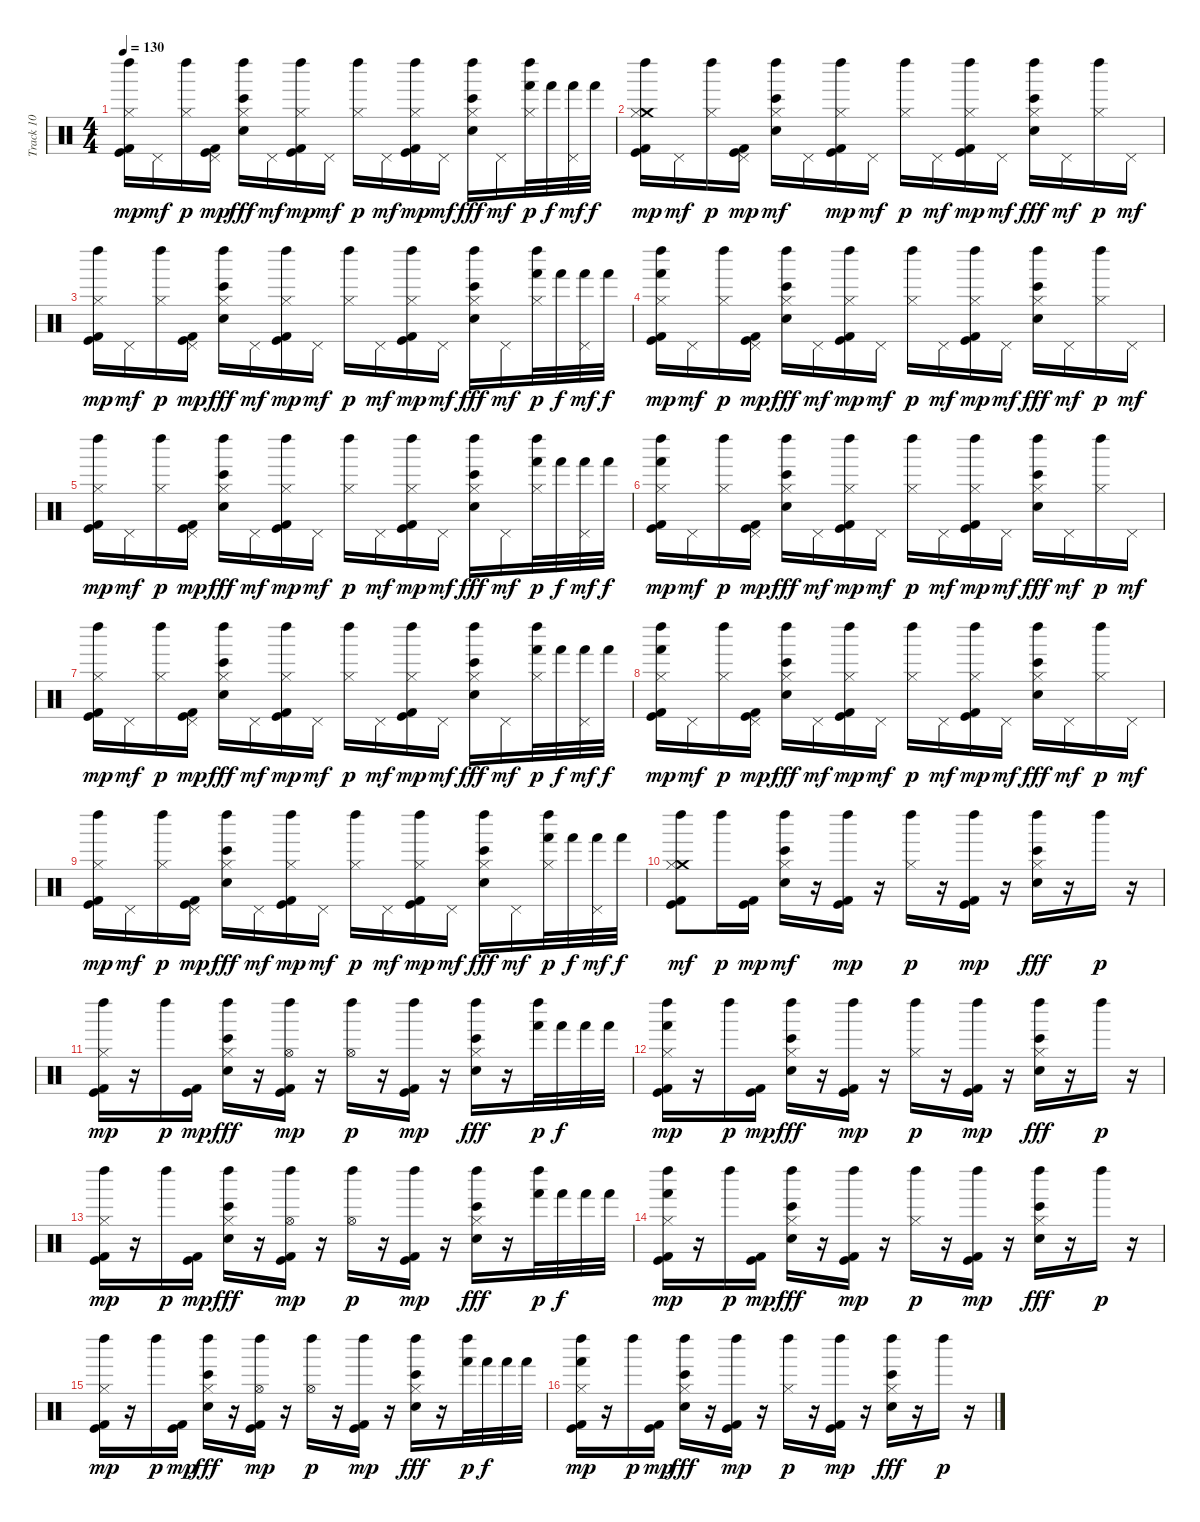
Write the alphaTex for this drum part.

\track ("Track 10" "Track 10") {instrument percussion}
\staff {score}
\articulation defaults
\ts (4 4)
\tempo 130
\clef neutral
\ks c
("Hi-Hat (closed)" "Left Maraca (hit)" "Kick (hit) 2" "Kick (hit)").16{dy mp} "Pedal Hi-Hat (hit)".16{dy mf} ("Hi-Hat (closed)" "Left Maraca (hit)").16{dy p} ("Pedal Hi-Hat (hit)" "Kick (hit) 2" "Kick (hit)").16{dy mp} ("Hi-Hat (closed)" "Left Maraca (hit)" "Hand Clap (hit)" "Bongo High (hit)").16{dy fff} "Pedal Hi-Hat (hit)".16{dy mf} ("Hi-Hat (closed)" "Left Maraca (hit)" "Kick (hit) 2" "Kick (hit)").16{dy mp} "Pedal Hi-Hat (hit)".16{dy mf} ("Hi-Hat (closed)" "Left Maraca (hit)").16{dy p} "Pedal Hi-Hat (hit)".16{dy mf} ("Hi-Hat (closed)" "Left Maraca (hit)" "Kick (hit) 2" "Kick (hit)").16{dy mp} "Pedal Hi-Hat (hit)".16{dy mf} ("Hi-Hat (closed)" "Left Maraca (hit)" "Hand Clap (hit)" "Bongo High (hit)").16{dy fff} "Pedal Hi-Hat (hit)".16{dy mf} ("Hi-Hat (closed)" "Hand (hit)" "Left Maraca (hit)").32{dy p} "Hand (hit)".32{dy f} ("Pedal Hi-Hat (hit)" "Hand (hit)").32{dy mf} "Hand (hit)".32{dy f} |
("Crash medium (hit)" "Hi-Hat (closed)" "Left Maraca (hit)" "Kick (hit) 2" "Kick (hit)").16{dy mp} "Pedal Hi-Hat (hit)".16{dy mf} ("Hi-Hat (closed)" "Left Maraca (hit)").16{dy p} ("Pedal Hi-Hat (hit)" "Kick (hit) 2" "Kick (hit)").16{dy mp} ("Left Maraca (hit)" "Hand Clap (hit)" "Bongo High (hit)" "Hi-Hat (closed)").16{dy mf} "Pedal Hi-Hat (hit)".16 ("Hi-Hat (closed)" "Left Maraca (hit)" "Kick (hit) 2" "Kick (hit)").16{dy mp} "Pedal Hi-Hat (hit)".16{dy mf} ("Hi-Hat (closed)" "Left Maraca (hit)").16{dy p} "Pedal Hi-Hat (hit)".16{dy mf} ("Hi-Hat (closed)" "Left Maraca (hit)" "Kick (hit) 2" "Kick (hit)").16{dy mp} "Pedal Hi-Hat (hit)".16{dy mf} ("Hi-Hat (closed)" "Left Maraca (hit)" "Hand Clap (hit)" "Bongo High (hit)").16{dy fff} "Pedal Hi-Hat (hit)".16{dy mf} ("Hi-Hat (closed)" "Left Maraca (hit)").16{dy p} "Pedal Hi-Hat (hit)".16{dy mf} |
("Hi-Hat (closed)" "Left Maraca (hit)" "Kick (hit) 2" "Kick (hit)").16{dy mp} "Pedal Hi-Hat (hit)".16{dy mf} ("Hi-Hat (closed)" "Left Maraca (hit)").16{dy p} ("Pedal Hi-Hat (hit)" "Kick (hit) 2" "Kick (hit)").16{dy mp} ("Hi-Hat (closed)" "Left Maraca (hit)" "Hand Clap (hit)" "Bongo High (hit)").16{dy fff} "Pedal Hi-Hat (hit)".16{dy mf} ("Hi-Hat (closed)" "Left Maraca (hit)" "Kick (hit) 2" "Kick (hit)").16{dy mp} "Pedal Hi-Hat (hit)".16{dy mf} ("Hi-Hat (closed)" "Left Maraca (hit)").16{dy p} "Pedal Hi-Hat (hit)".16{dy mf} ("Hi-Hat (closed)" "Left Maraca (hit)" "Kick (hit) 2" "Kick (hit)").16{dy mp} "Pedal Hi-Hat (hit)".16{dy mf} ("Hi-Hat (closed)" "Left Maraca (hit)" "Hand Clap (hit)" "Bongo High (hit)").16{dy fff} "Pedal Hi-Hat (hit)".16{dy mf} ("Hi-Hat (closed)" "Hand (hit)" "Left Maraca (hit)").32{dy p} "Hand (hit)".32{dy f} ("Pedal Hi-Hat (hit)" "Hand (hit)").32{dy mf} "Hand (hit)".32{dy f} |
("Hand (hit)" "Hi-Hat (closed)" "Left Maraca (hit)" "Kick (hit) 2" "Kick (hit)").16{dy mp} "Pedal Hi-Hat (hit)".16{dy mf} ("Hi-Hat (closed)" "Left Maraca (hit)").16{dy p} ("Pedal Hi-Hat (hit)" "Kick (hit) 2" "Kick (hit)").16{dy mp} ("Hi-Hat (closed)" "Left Maraca (hit)" "Hand Clap (hit)" "Bongo High (hit)").16{dy fff} "Pedal Hi-Hat (hit)".16{dy mf} ("Hi-Hat (closed)" "Left Maraca (hit)" "Kick (hit) 2" "Kick (hit)").16{dy mp} "Pedal Hi-Hat (hit)".16{dy mf} ("Hi-Hat (closed)" "Left Maraca (hit)").16{dy p} "Pedal Hi-Hat (hit)".16{dy mf} ("Hi-Hat (closed)" "Left Maraca (hit)" "Kick (hit) 2" "Kick (hit)").16{dy mp} "Pedal Hi-Hat (hit)".16{dy mf} ("Hi-Hat (closed)" "Left Maraca (hit)" "Hand Clap (hit)" "Bongo High (hit)").16{dy fff} "Pedal Hi-Hat (hit)".16{dy mf} ("Hi-Hat (closed)" "Left Maraca (hit)").16{dy p} "Pedal Hi-Hat (hit)".16{dy mf} |
("Hi-Hat (closed)" "Left Maraca (hit)" "Kick (hit) 2" "Kick (hit)").16{dy mp} "Pedal Hi-Hat (hit)".16{dy mf} ("Hi-Hat (closed)" "Left Maraca (hit)").16{dy p} ("Pedal Hi-Hat (hit)" "Kick (hit) 2" "Kick (hit)").16{dy mp} ("Hi-Hat (closed)" "Left Maraca (hit)" "Hand Clap (hit)" "Bongo High (hit)").16{dy fff} "Pedal Hi-Hat (hit)".16{dy mf} ("Hi-Hat (closed)" "Left Maraca (hit)" "Kick (hit) 2" "Kick (hit)").16{dy mp} "Pedal Hi-Hat (hit)".16{dy mf} ("Hi-Hat (closed)" "Left Maraca (hit)").16{dy p} "Pedal Hi-Hat (hit)".16{dy mf} ("Hi-Hat (closed)" "Left Maraca (hit)" "Kick (hit) 2" "Kick (hit)").16{dy mp} "Pedal Hi-Hat (hit)".16{dy mf} ("Hi-Hat (closed)" "Left Maraca (hit)" "Hand Clap (hit)" "Bongo High (hit)").16{dy fff} "Pedal Hi-Hat (hit)".16{dy mf} ("Hi-Hat (closed)" "Hand (hit)" "Left Maraca (hit)").32{dy p} "Hand (hit)".32{dy f} ("Pedal Hi-Hat (hit)" "Hand (hit)").32{dy mf} "Hand (hit)".32{dy f} |
("Hand (hit)" "Hi-Hat (closed)" "Left Maraca (hit)" "Kick (hit) 2" "Kick (hit)").16{dy mp} "Pedal Hi-Hat (hit)".16{dy mf} ("Hi-Hat (closed)" "Left Maraca (hit)").16{dy p} ("Pedal Hi-Hat (hit)" "Kick (hit) 2" "Kick (hit)").16{dy mp} ("Hi-Hat (closed)" "Left Maraca (hit)" "Hand Clap (hit)" "Bongo High (hit)").16{dy fff} "Pedal Hi-Hat (hit)".16{dy mf} ("Hi-Hat (closed)" "Left Maraca (hit)" "Kick (hit) 2" "Kick (hit)").16{dy mp} "Pedal Hi-Hat (hit)".16{dy mf} ("Hi-Hat (closed)" "Left Maraca (hit)").16{dy p} "Pedal Hi-Hat (hit)".16{dy mf} ("Hi-Hat (closed)" "Left Maraca (hit)" "Kick (hit) 2" "Kick (hit)").16{dy mp} "Pedal Hi-Hat (hit)".16{dy mf} ("Hi-Hat (closed)" "Left Maraca (hit)" "Hand Clap (hit)" "Bongo High (hit)").16{dy fff} "Pedal Hi-Hat (hit)".16{dy mf} ("Hi-Hat (closed)" "Left Maraca (hit)").16{dy p} "Pedal Hi-Hat (hit)".16{dy mf} |
("Hi-Hat (closed)" "Left Maraca (hit)" "Kick (hit) 2" "Kick (hit)").16{dy mp} "Pedal Hi-Hat (hit)".16{dy mf} ("Hi-Hat (closed)" "Left Maraca (hit)").16{dy p} ("Pedal Hi-Hat (hit)" "Kick (hit) 2" "Kick (hit)").16{dy mp} ("Hi-Hat (closed)" "Left Maraca (hit)" "Hand Clap (hit)" "Bongo High (hit)").16{dy fff} "Pedal Hi-Hat (hit)".16{dy mf} ("Hi-Hat (closed)" "Left Maraca (hit)" "Kick (hit) 2" "Kick (hit)").16{dy mp} "Pedal Hi-Hat (hit)".16{dy mf} ("Hi-Hat (closed)" "Left Maraca (hit)").16{dy p} "Pedal Hi-Hat (hit)".16{dy mf} ("Hi-Hat (closed)" "Left Maraca (hit)" "Kick (hit) 2" "Kick (hit)").16{dy mp} "Pedal Hi-Hat (hit)".16{dy mf} ("Hi-Hat (closed)" "Left Maraca (hit)" "Hand Clap (hit)" "Bongo High (hit)").16{dy fff} "Pedal Hi-Hat (hit)".16{dy mf} ("Hi-Hat (closed)" "Hand (hit)" "Left Maraca (hit)").32{dy p} "Hand (hit)".32{dy f} ("Pedal Hi-Hat (hit)" "Hand (hit)").32{dy mf} "Hand (hit)".32{dy f} |
("Hand (hit)" "Hi-Hat (closed)" "Left Maraca (hit)" "Kick (hit) 2" "Kick (hit)").16{dy mp} "Pedal Hi-Hat (hit)".16{dy mf} ("Hi-Hat (closed)" "Left Maraca (hit)").16{dy p} ("Pedal Hi-Hat (hit)" "Kick (hit) 2" "Kick (hit)").16{dy mp} ("Hi-Hat (closed)" "Left Maraca (hit)" "Hand Clap (hit)" "Bongo High (hit)").16{dy fff} "Pedal Hi-Hat (hit)".16{dy mf} ("Hi-Hat (closed)" "Left Maraca (hit)" "Kick (hit) 2" "Kick (hit)").16{dy mp} "Pedal Hi-Hat (hit)".16{dy mf} ("Hi-Hat (closed)" "Left Maraca (hit)").16{dy p} "Pedal Hi-Hat (hit)".16{dy mf} ("Hi-Hat (closed)" "Left Maraca (hit)" "Kick (hit) 2" "Kick (hit)").16{dy mp} "Pedal Hi-Hat (hit)".16{dy mf} ("Hi-Hat (closed)" "Left Maraca (hit)" "Hand Clap (hit)" "Bongo High (hit)").16{dy fff} "Pedal Hi-Hat (hit)".16{dy mf} ("Hi-Hat (closed)" "Left Maraca (hit)").16{dy p} "Pedal Hi-Hat (hit)".16{dy mf} |
("Hi-Hat (closed)" "Left Maraca (hit)" "Kick (hit) 2" "Kick (hit)").16{dy mp} "Pedal Hi-Hat (hit)".16{dy mf} ("Hi-Hat (closed)" "Left Maraca (hit)").16{dy p} ("Pedal Hi-Hat (hit)" "Kick (hit) 2" "Kick (hit)").16{dy mp} ("Hi-Hat (closed)" "Left Maraca (hit)" "Hand Clap (hit)" "Bongo High (hit)").16{dy fff} "Pedal Hi-Hat (hit)".16{dy mf} ("Hi-Hat (closed)" "Left Maraca (hit)" "Kick (hit) 2" "Kick (hit)").16{dy mp} "Pedal Hi-Hat (hit)".16{dy mf} ("Hi-Hat (closed)" "Left Maraca (hit)").16{dy p} "Pedal Hi-Hat (hit)".16{dy mf} ("Hi-Hat (closed)" "Left Maraca (hit)" "Kick (hit) 2" "Kick (hit)").16{dy mp} "Pedal Hi-Hat (hit)".16{dy mf} ("Hi-Hat (closed)" "Left Maraca (hit)" "Hand Clap (hit)" "Bongo High (hit)").16{dy fff} "Pedal Hi-Hat (hit)".16{dy mf} ("Hi-Hat (closed)" "Hand (hit)" "Left Maraca (hit)").32{dy p} "Hand (hit)".32{dy f} ("Pedal Hi-Hat (hit)" "Hand (hit)").32{dy mf} "Hand (hit)".32{dy f} |
("Crash medium (hit)" "Left Maraca (hit)" "Kick (hit)" "Kick (hit) 2" "Hi-Hat (closed)").8{dy mf} "Left Maraca (hit)".16{dy p} ("Kick (hit) 2" "Kick (hit)").16{dy mp} ("Left Maraca (hit)" "Hand Clap (hit)" "Bongo High (hit)" "Hi-Hat (closed)").16{dy mf} r.16 ("Left Maraca (hit)" "Kick (hit) 2" "Kick (hit)").16{dy mp} r.16 ("Hi-Hat (closed)" "Left Maraca (hit)").16{dy p} r.16 ("Left Maraca (hit)" "Kick (hit) 2" "Kick (hit)").16{dy mp} r.16 ("Hi-Hat (closed)" "Left Maraca (hit)" "Hand Clap (hit)" "Bongo High (hit)").16{dy fff} r.16 "Left Maraca (hit)".16{dy p} r.16 |
("Hi-Hat (closed)" "Left Maraca (hit)" "Kick (hit) 2" "Kick (hit)").16{dy mp} r.16 "Left Maraca (hit)".16{dy p} ("Kick (hit) 2" "Kick (hit)").16{dy mp} ("Hi-Hat (closed)" "Left Maraca (hit)" "Hand Clap (hit)" "Bongo High (hit)").16{dy fff} r.16 ("Hi-Hat (open)" "Left Maraca (hit)" "Kick (hit) 2" "Kick (hit)").16{dy mp} r.16 ("Hi-Hat (open)" "Left Maraca (hit)").16{dy p} r.16 ("Left Maraca (hit)" "Kick (hit) 2" "Kick (hit)").16{dy mp} r.16 ("Hi-Hat (closed)" "Left Maraca (hit)" "Hand Clap (hit)" "Bongo High (hit)").16{dy fff} r.16 ("Hand (hit)" "Left Maraca (hit)").32{dy p} "Hand (hit)".32{dy f} "Hand (hit)".32 "Hand (hit)".32 |
("Hand (hit)" "Hi-Hat (closed)" "Left Maraca (hit)" "Kick (hit) 2" "Kick (hit)").16{dy mp} r.16 "Left Maraca (hit)".16{dy p} ("Kick (hit) 2" "Kick (hit)").16{dy mp} ("Hi-Hat (closed)" "Left Maraca (hit)" "Hand Clap (hit)" "Bongo High (hit)").16{dy fff} r.16 ("Left Maraca (hit)" "Kick (hit) 2" "Kick (hit)").16{dy mp} r.16 ("Hi-Hat (closed)" "Left Maraca (hit)").16{dy p} r.16 ("Left Maraca (hit)" "Kick (hit) 2" "Kick (hit)").16{dy mp} r.16 ("Hi-Hat (closed)" "Left Maraca (hit)" "Hand Clap (hit)" "Bongo High (hit)").16{dy fff} r.16 "Left Maraca (hit)".16{dy p} r.16 |
("Hi-Hat (closed)" "Left Maraca (hit)" "Kick (hit) 2" "Kick (hit)").16{dy mp} r.16 "Left Maraca (hit)".16{dy p} ("Kick (hit) 2" "Kick (hit)").16{dy mp} ("Hi-Hat (closed)" "Left Maraca (hit)" "Hand Clap (hit)" "Bongo High (hit)").16{dy fff} r.16 ("Hi-Hat (open)" "Left Maraca (hit)" "Kick (hit) 2" "Kick (hit)").16{dy mp} r.16 ("Hi-Hat (open)" "Left Maraca (hit)").16{dy p} r.16 ("Left Maraca (hit)" "Kick (hit) 2" "Kick (hit)").16{dy mp} r.16 ("Hi-Hat (closed)" "Left Maraca (hit)" "Hand Clap (hit)" "Bongo High (hit)").16{dy fff} r.16 ("Hand (hit)" "Left Maraca (hit)").32{dy p} "Hand (hit)".32{dy f} "Hand (hit)".32 "Hand (hit)".32 |
("Hand (hit)" "Hi-Hat (closed)" "Left Maraca (hit)" "Kick (hit) 2" "Kick (hit)").16{dy mp} r.16 "Left Maraca (hit)".16{dy p} ("Kick (hit) 2" "Kick (hit)").16{dy mp} ("Hi-Hat (closed)" "Left Maraca (hit)" "Hand Clap (hit)" "Bongo High (hit)").16{dy fff} r.16 ("Left Maraca (hit)" "Kick (hit) 2" "Kick (hit)").16{dy mp} r.16 ("Hi-Hat (closed)" "Left Maraca (hit)").16{dy p} r.16 ("Left Maraca (hit)" "Kick (hit) 2" "Kick (hit)").16{dy mp} r.16 ("Hi-Hat (closed)" "Left Maraca (hit)" "Hand Clap (hit)" "Bongo High (hit)").16{dy fff} r.16 "Left Maraca (hit)".16{dy p} r.16 |
("Hi-Hat (closed)" "Left Maraca (hit)" "Kick (hit) 2" "Kick (hit)").16{dy mp} r.16 "Left Maraca (hit)".16{dy p} ("Kick (hit) 2" "Kick (hit)").16{dy mp} ("Hi-Hat (closed)" "Left Maraca (hit)" "Hand Clap (hit)" "Bongo High (hit)").16{dy fff} r.16 ("Hi-Hat (open)" "Left Maraca (hit)" "Kick (hit) 2" "Kick (hit)").16{dy mp} r.16 ("Hi-Hat (open)" "Left Maraca (hit)").16{dy p} r.16 ("Left Maraca (hit)" "Kick (hit) 2" "Kick (hit)").16{dy mp} r.16 ("Hi-Hat (closed)" "Left Maraca (hit)" "Hand Clap (hit)" "Bongo High (hit)").16{dy fff} r.16 ("Hand (hit)" "Left Maraca (hit)").32{dy p} "Hand (hit)".32{dy f} "Hand (hit)".32 "Hand (hit)".32 |
("Hand (hit)" "Hi-Hat (closed)" "Left Maraca (hit)" "Kick (hit) 2" "Kick (hit)").16{dy mp} r.16 "Left Maraca (hit)".16{dy p} ("Kick (hit) 2" "Kick (hit)").16{dy mp} ("Hi-Hat (closed)" "Left Maraca (hit)" "Hand Clap (hit)" "Bongo High (hit)").16{dy fff} r.16 ("Left Maraca (hit)" "Kick (hit) 2" "Kick (hit)").16{dy mp} r.16 ("Hi-Hat (closed)" "Left Maraca (hit)").16{dy p} r.16 ("Left Maraca (hit)" "Kick (hit) 2" "Kick (hit)").16{dy mp} r.16 ("Hi-Hat (closed)" "Left Maraca (hit)" "Hand Clap (hit)" "Bongo High (hit)").16{dy fff} r.16 "Left Maraca (hit)".16{dy p} r.16
